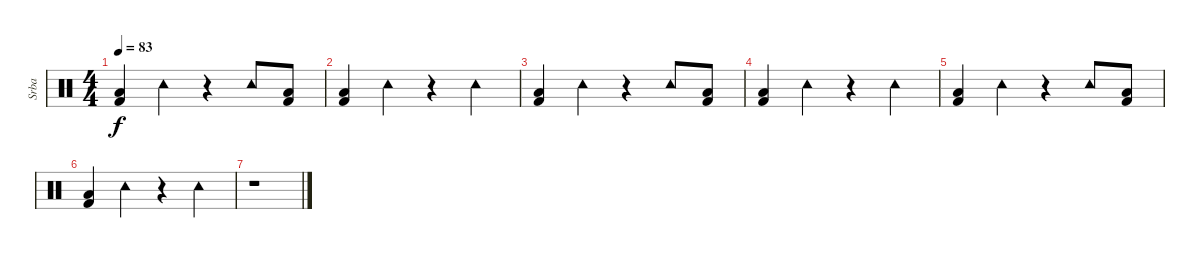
\track ("Srba" "Srba") {instrument percussion}
\staff {score}
\articulation defaults
\ts (4 4)
\tempo 83
\clef neutral
\ks c
("Kick (hit) 2" "Low Floor Tom (hit)").4{dy f} "Tambourine (hit)".4 r.4 "Tambourine (hit)".8 ("Kick (hit) 2" "Low Floor Tom (hit)").8 |
("Kick (hit) 2" "Low Floor Tom (hit)").4 "Tambourine (hit)".4 r.4 "Tambourine (hit)".4 |
("Kick (hit) 2" "Low Floor Tom (hit)").4 "Tambourine (hit)".4 r.4 "Tambourine (hit)".8 ("Kick (hit) 2" "Low Floor Tom (hit)").8 |
("Kick (hit) 2" "Low Floor Tom (hit)").4 "Tambourine (hit)".4 r.4 "Tambourine (hit)".4 |
("Kick (hit) 2" "Low Floor Tom (hit)").4 "Tambourine (hit)".4 r.4 "Tambourine (hit)".8 ("Kick (hit) 2" "Low Floor Tom (hit)").8 |
("Kick (hit) 2" "Low Floor Tom (hit)").4 "Tambourine (hit)".4 r.4 "Tambourine (hit)".4 |
r.1
